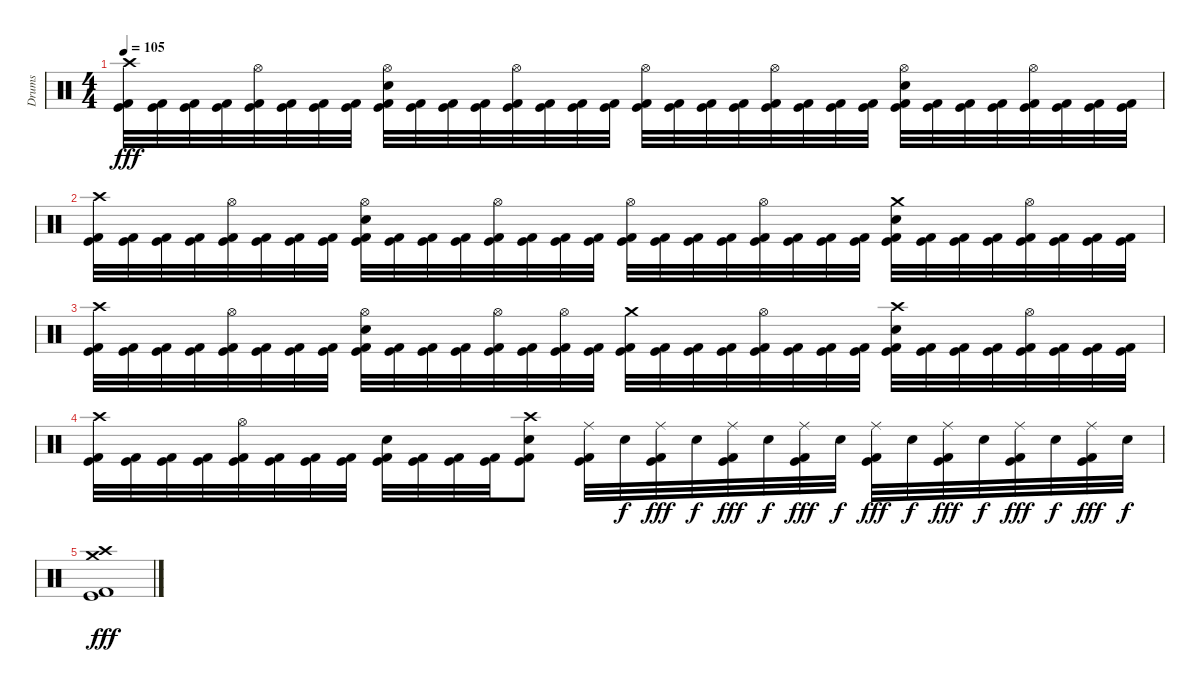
\track ("Drums" "Drums") {instrument percussion}
\staff {score}
\articulation defaults
\ts (4 4)
\tempo 105
\clef neutral
\ks c
("Crash high (hit)" "Kick (hit)" "Kick (hit) 2").32{dy fff} ("Kick (hit)" "Kick (hit) 2").32 ("Kick (hit)" "Kick (hit) 2").32 ("Kick (hit)" "Kick (hit) 2").32 ("Hi-Hat (open)" "Kick (hit)" "Kick (hit) 2").32 ("Kick (hit)" "Kick (hit) 2").32 ("Kick (hit)" "Kick (hit) 2").32 ("Kick (hit)" "Kick (hit) 2").32 ("Hi-Hat (open)" "Electric Snare (hit)" "Kick (hit)" "Kick (hit) 2").32 ("Kick (hit)" "Kick (hit) 2").32 ("Kick (hit)" "Kick (hit) 2").32 ("Kick (hit)" "Kick (hit) 2").32 ("Hi-Hat (open)" "Kick (hit)" "Kick (hit) 2").32 ("Kick (hit)" "Kick (hit) 2").32 ("Kick (hit)" "Kick (hit) 2").32 ("Kick (hit)" "Kick (hit) 2").32 ("Hi-Hat (open)" "Kick (hit)" "Kick (hit) 2").32 ("Kick (hit)" "Kick (hit) 2").32 ("Kick (hit)" "Kick (hit) 2").32 ("Kick (hit)" "Kick (hit) 2").32 ("Hi-Hat (open)" "Kick (hit)" "Kick (hit) 2").32 ("Kick (hit)" "Kick (hit) 2").32 ("Kick (hit)" "Kick (hit) 2").32 ("Kick (hit)" "Kick (hit) 2").32 ("Hi-Hat (open)" "Electric Snare (hit)" "Kick (hit)" "Kick (hit) 2").32 ("Kick (hit)" "Kick (hit) 2").32 ("Kick (hit)" "Kick (hit) 2").32 ("Kick (hit)" "Kick (hit) 2").32 ("Hi-Hat (open)" "Kick (hit)" "Kick (hit) 2").32 ("Kick (hit)" "Kick (hit) 2").32 ("Kick (hit)" "Kick (hit) 2").32 ("Kick (hit)" "Kick (hit) 2").32 |
("Crash high (hit)" "Kick (hit)" "Kick (hit) 2").32 ("Kick (hit)" "Kick (hit) 2").32 ("Kick (hit)" "Kick (hit) 2").32 ("Kick (hit)" "Kick (hit) 2").32 ("Hi-Hat (open)" "Kick (hit)" "Kick (hit) 2").32 ("Kick (hit)" "Kick (hit) 2").32 ("Kick (hit)" "Kick (hit) 2").32 ("Kick (hit)" "Kick (hit) 2").32 ("Hi-Hat (open)" "Electric Snare (hit)" "Kick (hit)" "Kick (hit) 2").32 ("Kick (hit)" "Kick (hit) 2").32 ("Kick (hit)" "Kick (hit) 2").32 ("Kick (hit)" "Kick (hit) 2").32 ("Hi-Hat (open)" "Kick (hit)" "Kick (hit) 2").32 ("Kick (hit)" "Kick (hit) 2").32 ("Kick (hit)" "Kick (hit) 2").32 ("Kick (hit)" "Kick (hit) 2").32 ("Hi-Hat (open)" "Kick (hit)" "Kick (hit) 2").32 ("Kick (hit)" "Kick (hit) 2").32 ("Kick (hit)" "Kick (hit) 2").32 ("Kick (hit)" "Kick (hit) 2").32 ("Hi-Hat (open)" "Kick (hit)" "Kick (hit) 2").32 ("Kick (hit)" "Kick (hit) 2").32 ("Kick (hit)" "Kick (hit) 2").32 ("Kick (hit)" "Kick (hit) 2").32 ("Crash medium (hit)" "Electric Snare (hit)" "Kick (hit)" "Kick (hit) 2").32 ("Kick (hit)" "Kick (hit) 2").32 ("Kick (hit)" "Kick (hit) 2").32 ("Kick (hit)" "Kick (hit) 2").32 ("Hi-Hat (open)" "Kick (hit)" "Kick (hit) 2").32 ("Kick (hit)" "Kick (hit) 2").32 ("Kick (hit)" "Kick (hit) 2").32 ("Kick (hit)" "Kick (hit) 2").32 |
("Crash high (hit)" "Kick (hit)" "Kick (hit) 2").32 ("Kick (hit)" "Kick (hit) 2").32 ("Kick (hit)" "Kick (hit) 2").32 ("Kick (hit)" "Kick (hit) 2").32 ("Hi-Hat (open)" "Kick (hit)" "Kick (hit) 2").32 ("Kick (hit)" "Kick (hit) 2").32 ("Kick (hit)" "Kick (hit) 2").32 ("Kick (hit)" "Kick (hit) 2").32 ("Hi-Hat (open)" "Electric Snare (hit)" "Kick (hit)" "Kick (hit) 2").32 ("Kick (hit)" "Kick (hit) 2").32 ("Kick (hit)" "Kick (hit) 2").32 ("Kick (hit)" "Kick (hit) 2").32 ("Hi-Hat (open)" "Kick (hit)" "Kick (hit) 2").32 ("Kick (hit)" "Kick (hit) 2").32 ("Hi-Hat (open)" "Kick (hit)" "Kick (hit) 2").32 ("Kick (hit)" "Kick (hit) 2").32 ("Crash medium (hit)" "Kick (hit)" "Kick (hit) 2").32 ("Kick (hit)" "Kick (hit) 2").32 ("Kick (hit)" "Kick (hit) 2").32 ("Kick (hit)" "Kick (hit) 2").32 ("Hi-Hat (open)" "Kick (hit)" "Kick (hit) 2").32 ("Kick (hit)" "Kick (hit) 2").32 ("Kick (hit)" "Kick (hit) 2").32 ("Kick (hit)" "Kick (hit) 2").32 ("Crash high (hit)" "Electric Snare (hit)" "Kick (hit)" "Kick (hit) 2").32 ("Kick (hit)" "Kick (hit) 2").32 ("Kick (hit)" "Kick (hit) 2").32 ("Kick (hit)" "Kick (hit) 2").32 ("Hi-Hat (open)" "Kick (hit)" "Kick (hit) 2").32 ("Kick (hit)" "Kick (hit) 2").32 ("Kick (hit)" "Kick (hit) 2").32 ("Kick (hit)" "Kick (hit) 2").32 |
("Crash high (hit)" "Kick (hit)" "Kick (hit) 2").32 ("Kick (hit)" "Kick (hit) 2").32 ("Kick (hit)" "Kick (hit) 2").32 ("Kick (hit)" "Kick (hit) 2").32 ("Hi-Hat (open)" "Kick (hit)" "Kick (hit) 2").32 ("Kick (hit)" "Kick (hit) 2").32 ("Kick (hit)" "Kick (hit) 2").32 ("Kick (hit)" "Kick (hit) 2").32 ("Electric Snare (hit)" "Kick (hit)" "Kick (hit) 2").32 ("Kick (hit)" "Kick (hit) 2").32 ("Kick (hit)" "Kick (hit) 2").32 ("Kick (hit)" "Kick (hit) 2").32 ("Crash high (hit)" "Electric Snare (hit)" "Kick (hit)" "Kick (hit) 2").8 ("Ride (middle)" "Kick (hit)" "Kick (hit) 2").32 "Electric Snare (hit)".32{dy f} ("Ride (middle)" "Kick (hit)" "Kick (hit) 2").32{dy fff} "Electric Snare (hit)".32{dy f} ("Ride (middle)" "Kick (hit)" "Kick (hit) 2").32{dy fff} "Electric Snare (hit)".32{dy f} ("Ride (middle)" "Kick (hit)" "Kick (hit) 2").32{dy fff} "Electric Snare (hit)".32{dy f} ("Ride (middle)" "Kick (hit)" "Kick (hit) 2").32{dy fff} "Electric Snare (hit)".32{dy f} ("Ride (middle)" "Kick (hit)" "Kick (hit) 2").32{dy fff} "Electric Snare (hit)".32{dy f} ("Ride (middle)" "Kick (hit)" "Kick (hit) 2").32{dy fff} "Electric Snare (hit)".32{dy f} ("Ride (middle)" "Kick (hit)" "Kick (hit) 2").32{dy fff} "Electric Snare (hit)".32{dy f} |
("Crash medium (hit)" "Crash high (hit)" "Kick (hit)" "Kick (hit) 2").1{dy fff}
